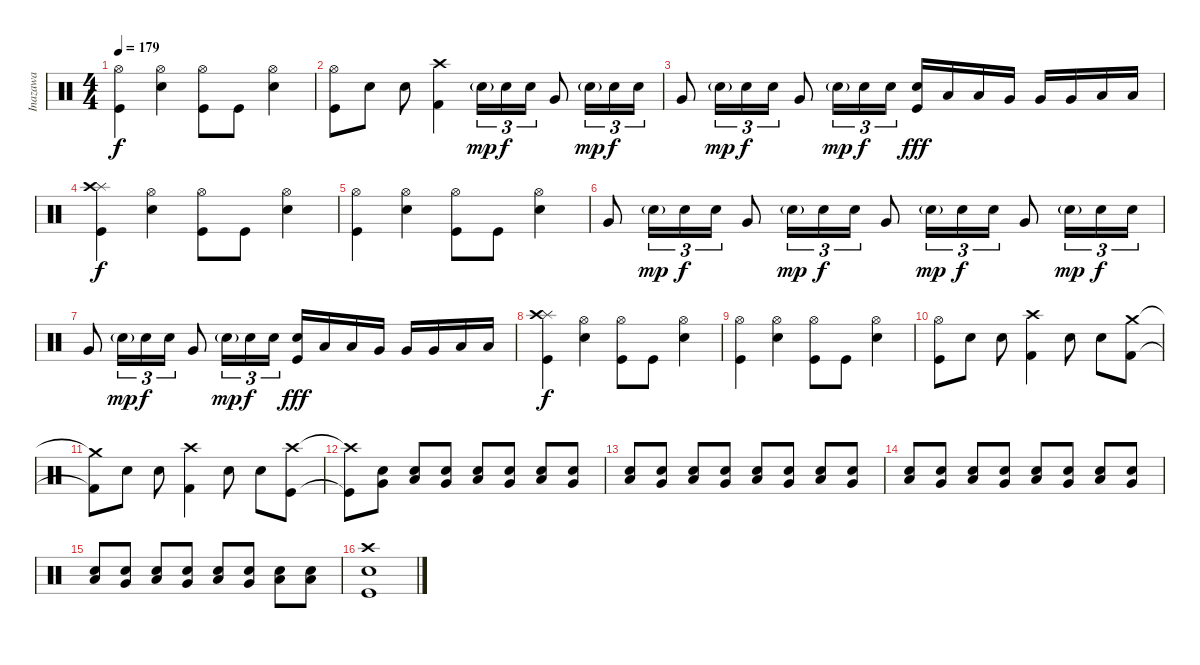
\track ("Inazawa" "Inazawa") {instrument percussion}
\staff {score}
\articulation defaults
\ts (4 4)
\tempo 179
\clef neutral
\ks c
("Hi-Hat (open)" "Kick (hit)").4{dy f} ("Hi-Hat (open)" "Snare (hit) 2").4 ("Hi-Hat (open)" "Kick (hit)").8 "Kick (hit)".8 ("Hi-Hat (open)" "Snare (hit) 2").4 |
("Hi-Hat (open)" "Kick (hit)").8 "Snare (hit) 2".8 "Snare (hit) 2".8 ("Crash high (hit)" "Kick (hit) 2").4 "Snare (hit) 2"{g}.16{tu (3 2) dy mp} "Snare (hit) 2".16{tu (3 2) dy f} "Snare (hit) 2".16{tu (3 2)} "Very Low Tom (hit)".8 "Snare (hit) 2"{g}.16{tu (3 2) dy mp} "Snare (hit) 2".16{tu (3 2) dy f} "Snare (hit) 2".16{tu (3 2)} |
"Very Low Tom (hit)".8 "Snare (hit) 2"{g}.16{tu (3 2) dy mp} "Snare (hit) 2".16{tu (3 2) dy f} "Snare (hit) 2".16{tu (3 2)} "Very Low Tom (hit)".8 "Snare (hit) 2"{g}.16{tu (3 2) dy mp} "Snare (hit) 2".16{tu (3 2) dy f} "Snare (hit) 2".16{tu (3 2)} ("Snare (hit) 2" "Kick (hit)").16{dy fff} "Low Tom (hit)".16 "Low Tom (hit)".16 "Very Low Tom (hit)".16 "Very Low Tom (hit)".16 "Very Low Tom (hit)".16 "Low Floor Tom (hit)".16 "Low Floor Tom (hit)".16 |
("Splash (hit)" "Crash high (hit)" "Kick (hit)").4{dy f} ("Hi-Hat (open)" "Snare (hit) 2").4 ("Hi-Hat (open)" "Kick (hit)").8 "Kick (hit)".8 ("Hi-Hat (open)" "Snare (hit) 2").4 |
("Hi-Hat (open)" "Kick (hit)").4 ("Hi-Hat (open)" "Snare (hit) 2").4 ("Hi-Hat (open)" "Kick (hit)").8 "Kick (hit)".8 ("Hi-Hat (open)" "Snare (hit) 2").4 |
"Very Low Tom (hit)".8 "Snare (hit) 2"{g}.16{tu (3 2) dy mp} "Snare (hit) 2".16{tu (3 2) dy f} "Snare (hit) 2".16{tu (3 2)} "Very Low Tom (hit)".8 "Snare (hit) 2"{g}.16{tu (3 2) dy mp} "Snare (hit) 2".16{tu (3 2) dy f} "Snare (hit) 2".16{tu (3 2)} "Very Low Tom (hit)".8 "Snare (hit) 2"{g}.16{tu (3 2) dy mp} "Snare (hit) 2".16{tu (3 2) dy f} "Snare (hit) 2".16{tu (3 2)} "Very Low Tom (hit)".8 "Snare (hit) 2"{g}.16{tu (3 2) dy mp} "Snare (hit) 2".16{tu (3 2) dy f} "Snare (hit) 2".16{tu (3 2)} |
"Very Low Tom (hit)".8 "Snare (hit) 2"{g}.16{tu (3 2) dy mp} "Snare (hit) 2".16{tu (3 2) dy f} "Snare (hit) 2".16{tu (3 2)} "Very Low Tom (hit)".8 "Snare (hit) 2"{g}.16{tu (3 2) dy mp} "Snare (hit) 2".16{tu (3 2) dy f} "Snare (hit) 2".16{tu (3 2)} ("Snare (hit) 2" "Kick (hit)").16{dy fff} "Low Tom (hit)".16 "Low Tom (hit)".16 "Very Low Tom (hit)".16 "Very Low Tom (hit)".16 "Very Low Tom (hit)".16 "Low Floor Tom (hit)".16 "Low Floor Tom (hit)".16 |
("Splash (hit)" "Crash high (hit)" "Kick (hit)").4{dy f} ("Hi-Hat (open)" "Snare (hit) 2").4 ("Hi-Hat (open)" "Kick (hit)").8 "Kick (hit)".8 ("Hi-Hat (open)" "Snare (hit) 2").4 |
("Hi-Hat (open)" "Kick (hit)").4 ("Hi-Hat (open)" "Snare (hit) 2").4 ("Hi-Hat (open)" "Kick (hit)").8 "Kick (hit)".8 ("Hi-Hat (open)" "Snare (hit) 2").4 |
("Hi-Hat (open)" "Kick (hit)").8 "Snare (hit) 2".8 "Snare (hit) 2".8 ("Crash high (hit)" "Kick (hit) 2").4 "Snare (hit) 2".8 "Snare (hit) 2".8 ("Crash medium (hit)" "Kick (hit) 2").8 |
("Crash medium (hit)"{t} "Kick (hit) 2"{t}).8 "Snare (hit) 2".8 "Snare (hit) 2".8 ("Crash high (hit)" "Kick (hit) 2").4 "Snare (hit) 2".8 "Snare (hit) 2".8 ("Crash high (hit)" "Kick (hit)").8 |
("Crash high (hit)"{t} "Kick (hit)"{t}).8 ("Snare (hit) 2" "Very Low Tom (hit)").8{volume 16} ("Snare (hit) 2" "Low Tom (hit)").8 ("Snare (hit) 2" "Very Low Tom (hit)").8 ("Snare (hit) 2" "Low Tom (hit)").8 ("Snare (hit) 2" "Very Low Tom (hit)").8 ("Snare (hit) 2" "Low Tom (hit)").8 ("Snare (hit) 2" "Very Low Tom (hit)").8 |
("Snare (hit) 2" "Low Tom (hit)").8 ("Snare (hit) 2" "Very Low Tom (hit)").8 ("Snare (hit) 2" "Low Tom (hit)").8 ("Snare (hit) 2" "Very Low Tom (hit)").8 ("Snare (hit) 2" "Low Tom (hit)").8 ("Snare (hit) 2" "Very Low Tom (hit)").8 ("Snare (hit) 2" "Low Tom (hit)").8 ("Snare (hit) 2" "Very Low Tom (hit)").8 |
("Snare (hit) 2" "Low Tom (hit)").8 ("Snare (hit) 2" "Very Low Tom (hit)").8 ("Snare (hit) 2" "Low Tom (hit)").8 ("Snare (hit) 2" "Very Low Tom (hit)").8 ("Snare (hit) 2" "Low Tom (hit)").8 ("Snare (hit) 2" "Very Low Tom (hit)").8 ("Snare (hit) 2" "Low Tom (hit)").8 ("Snare (hit) 2" "Very Low Tom (hit)").8 |
("Snare (hit) 2" "Low Tom (hit)").8 ("Snare (hit) 2" "Very Low Tom (hit)").8 ("Snare (hit) 2" "Low Tom (hit)").8 ("Snare (hit) 2" "Very Low Tom (hit)").8 ("Snare (hit) 2" "Low Tom (hit)").8 ("Snare (hit) 2" "Very Low Tom (hit)").8 ("Snare (hit) 2" "Low Tom (hit)").8 ("Snare (hit) 2" "Low Tom (hit)").8 |
("Crash high (hit)" "Snare (hit) 2" "Kick (hit)").1
